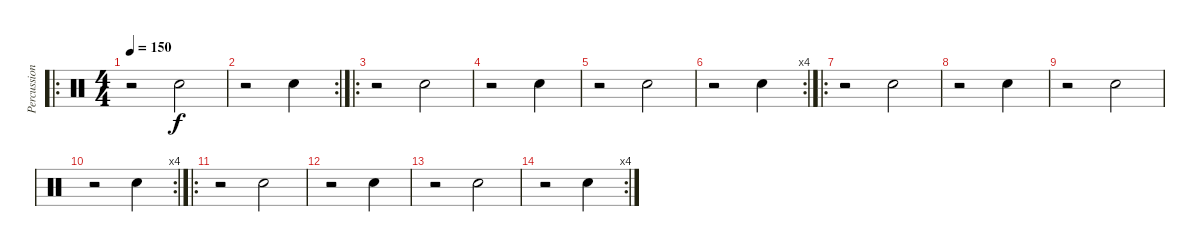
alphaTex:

\track ("Percussions" "Percussion") {instrument percussion}
\staff {score}
\articulation defaults
\ro
\ts (4 4)
\tempo 150
\clef neutral
\ks c
r.2{dy f} "Electric Snare (hit)".2 |
\rc 2
r.2 "Electric Snare (hit)".4 |
\ro
r.2 "Electric Snare (hit)".2 |
r.2 "Electric Snare (hit)".4 |
r.2 "Electric Snare (hit)".2 |
\rc 4
r.2 "Electric Snare (hit)".4 |
\ro
r.2 "Electric Snare (hit)".2 |
r.2 "Electric Snare (hit)".4 |
r.2 "Electric Snare (hit)".2 |
\rc 4
r.2 "Electric Snare (hit)".4 |
\ro
r.2 "Electric Snare (hit)".2 |
r.2 "Electric Snare (hit)".4 |
r.2 "Electric Snare (hit)".2 |
\rc 4
r.2 "Electric Snare (hit)".4
